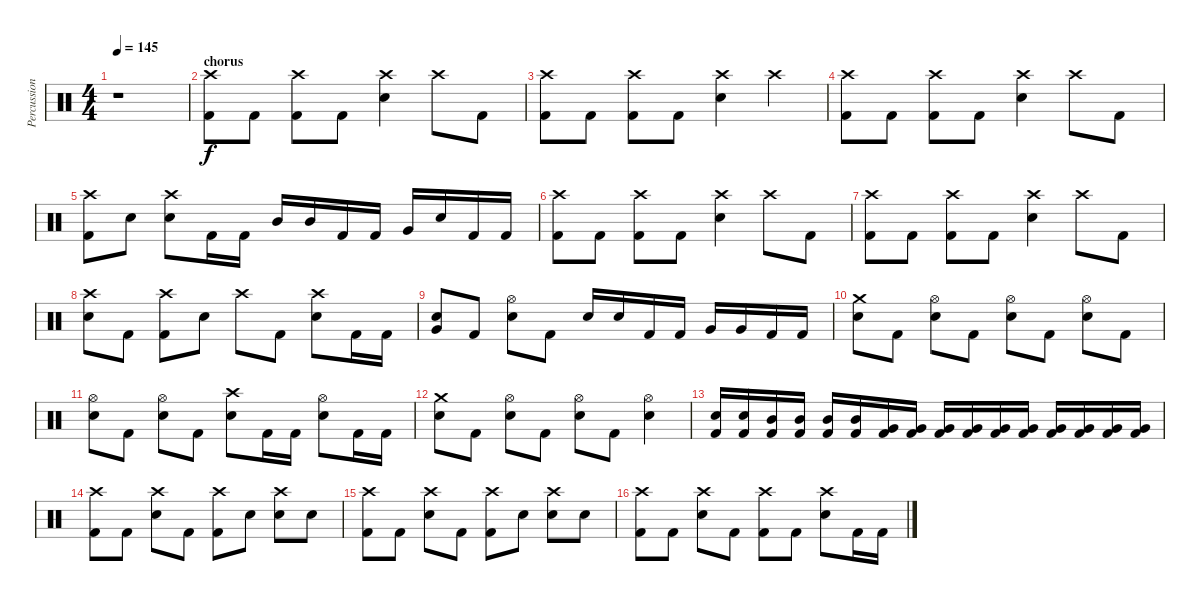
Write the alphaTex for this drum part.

\track ("Percussion" "Percussion") {instrument percussion}
\staff {score}
\articulation defaults
\ts (4 4)
\tempo 145
\clef neutral
\ks c
r.1{dy f} |
\section ("" "chorus")
("Crash high (hit)" "Kick (hit) 2").8 "Kick (hit) 2".8 ("Crash high (hit)" "Kick (hit) 2").8 "Kick (hit) 2".8 ("Crash high (hit)" "Snare (hit) 2").4 "Crash high (hit)".8 "Kick (hit) 2".8 |
("Crash high (hit)" "Kick (hit) 2").8 "Kick (hit) 2".8 ("Crash high (hit)" "Kick (hit) 2").8 "Kick (hit) 2".8 ("Crash high (hit)" "Snare (hit) 2").4 "Crash high (hit)".4 |
("Crash high (hit)" "Kick (hit) 2").8 "Kick (hit) 2".8 ("Crash high (hit)" "Kick (hit) 2").8 "Kick (hit) 2".8 ("Crash high (hit)" "Snare (hit) 2").4 "Crash high (hit)".8 "Kick (hit) 2".8 |
("Crash high (hit)" "Kick (hit) 2").8 "Snare (hit) 2".8 ("Crash high (hit)" "Snare (hit) 2").8 "Kick (hit) 2".16 "Kick (hit) 2".16 "Mid Tom (hit)".16 "Mid Tom (hit)".16 "Kick (hit) 2".16 "Kick (hit) 2".16 "Very Low Tom (hit)".16 "Snare (hit) 2".16 "Kick (hit) 2".16 "Kick (hit) 2".16 |
("Crash high (hit)" "Kick (hit) 2").8 "Kick (hit) 2".8 ("Crash high (hit)" "Kick (hit) 2").8 "Kick (hit) 2".8 ("Crash high (hit)" "Snare (hit) 2").4 "Crash high (hit)".8 "Kick (hit) 2".8 |
("Crash high (hit)" "Kick (hit) 2").8 "Kick (hit) 2".8 ("Crash high (hit)" "Kick (hit) 2").8 "Kick (hit) 2".8 ("Crash high (hit)" "Snare (hit) 2").4 "Crash high (hit)".8 "Kick (hit) 2".8 |
("Crash high (hit)" "Snare (hit) 2").8 "Kick (hit) 2".8 ("Crash high (hit)" "Kick (hit) 2").8 "Snare (hit) 2".8 "Crash high (hit)".8 "Kick (hit) 2".8 ("Crash high (hit)" "Snare (hit) 2").8 "Kick (hit) 2".16 "Kick (hit) 2".16 |
("Snare (hit) 2" "Very Low Tom (hit)").8 "Kick (hit) 2".8 ("Hi-Hat (open)" "Snare (hit) 2").8 "Kick (hit) 2".8 "Snare (hit) 2".16 "Snare (hit) 2".16 "Kick (hit) 2".16 "Kick (hit) 2".16 "Very Low Tom (hit)".16 "Very Low Tom (hit)".16 "Kick (hit) 2".16 "Kick (hit) 2".16 |
("Crash medium (hit)" "Snare (hit) 2").8 "Kick (hit) 2".8 ("Hi-Hat (open)" "Snare (hit) 2").8 "Kick (hit) 2".8 ("Hi-Hat (open)" "Snare (hit) 2").8 "Kick (hit) 2".8 ("Hi-Hat (open)" "Snare (hit) 2").8 "Kick (hit) 2".8 |
("Hi-Hat (open)" "Snare (hit) 2").8 "Kick (hit) 2".8 ("Hi-Hat (open)" "Snare (hit) 2").8 "Kick (hit) 2".8 ("Crash high (hit)" "Snare (hit) 2").8 "Kick (hit) 2".16 "Kick (hit) 2".16 ("Hi-Hat (open)" "Snare (hit) 2").8 "Kick (hit) 2".16 "Kick (hit) 2".16 |
("Crash medium (hit)" "Snare (hit) 2").8 "Kick (hit) 2".8 ("Hi-Hat (open)" "Snare (hit) 2").8 "Kick (hit) 2".8 ("Hi-Hat (open)" "Snare (hit) 2").8 "Kick (hit) 2".8 ("Hi-Hat (open)" "Snare (hit) 2").4 |
("Snare (hit) 2" "Kick (hit) 2").16 ("Snare (hit) 2" "Kick (hit) 2").16 ("Mid Tom (hit)" "Kick (hit) 2").16 ("Mid Tom (hit)" "Kick (hit) 2").16 ("Mid Tom (hit)" "Kick (hit) 2").16 ("Mid Tom (hit)" "Kick (hit) 2").16 ("Very Low Tom (hit)" "Kick (hit) 2").16 ("Very Low Tom (hit)" "Kick (hit) 2").16 ("Very Low Tom (hit)" "Kick (hit) 2").16 ("Very Low Tom (hit)" "Kick (hit) 2").16 ("Very Low Tom (hit)" "Kick (hit) 2").16 ("Very Low Tom (hit)" "Kick (hit) 2").16 ("Very Low Tom (hit)" "Kick (hit) 2").16 ("Very Low Tom (hit)" "Kick (hit) 2").16 ("Very Low Tom (hit)" "Kick (hit) 2").16 ("Very Low Tom (hit)" "Kick (hit) 2").16 |
("Crash high (hit)" "Kick (hit) 2").8 "Kick (hit) 2".8 ("Crash high (hit)" "Snare (hit) 2").8 "Kick (hit) 2".8 ("Crash high (hit)" "Kick (hit) 2").8 "Snare (hit) 2".8 ("Crash high (hit)" "Snare (hit) 2").8 "Snare (hit) 2".8 |
("Crash high (hit)" "Kick (hit) 2").8 "Kick (hit) 2".8 ("Crash high (hit)" "Snare (hit) 2").8 "Kick (hit) 2".8 ("Crash high (hit)" "Kick (hit) 2").8 "Snare (hit) 2".8 ("Crash high (hit)" "Snare (hit) 2").8 "Snare (hit) 2".8 |
("Crash high (hit)" "Kick (hit) 2").8 "Kick (hit) 2".8 ("Crash high (hit)" "Snare (hit) 2").8 "Kick (hit) 2".8 ("Crash high (hit)" "Kick (hit) 2").8 "Kick (hit) 2".8 ("Crash high (hit)" "Snare (hit) 2").8 "Kick (hit) 2".16 "Kick (hit) 2".16
